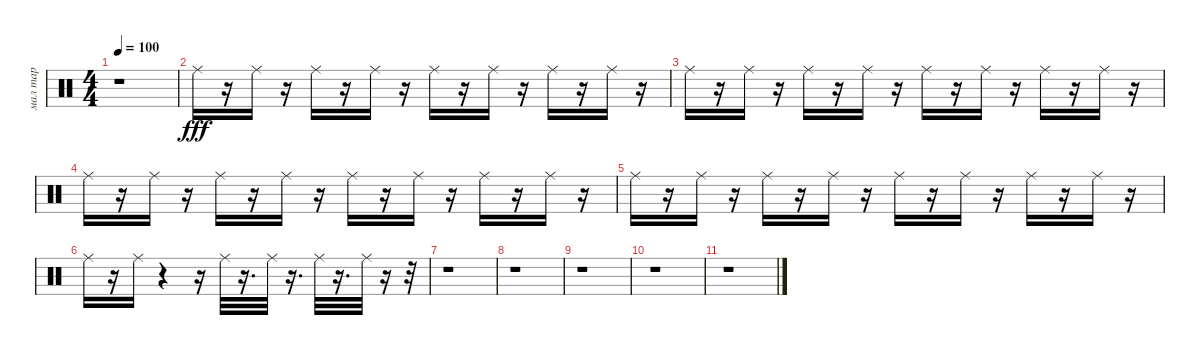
\track ("мал тар" "мал тар") {instrument percussion}
\staff {score}
\articulation defaults
\ts (4 4)
\tempo 100
\clef neutral
\ks c
r.1{dy fff} |
"Ride (middle)".16 r.16 "Ride (middle)".16 r.16 "Ride (middle)".16 r.16 "Ride (middle)".16 r.16 "Ride (middle)".16 r.16 "Ride (middle)".16 r.16 "Ride (middle)".16 r.16 "Ride (middle)".16 r.16 |
"Ride (middle)".16 r.16 "Ride (middle)".16 r.16 "Ride (middle)".16 r.16 "Ride (middle)".16 r.16 "Ride (middle)".16 r.16 "Ride (middle)".16 r.16 "Ride (middle)".16 r.16 "Ride (middle)".16 r.16 |
"Ride (middle)".16 r.16 "Ride (middle)".16 r.16 "Ride (middle)".16 r.16 "Ride (middle)".16 r.16 "Ride (middle)".16 r.16 "Ride (middle)".16 r.16 "Ride (middle)".16 r.16 "Ride (middle)".16 r.16 |
"Ride (middle)".16 r.16 "Ride (middle)".16 r.16 "Ride (middle)".16 r.16 "Ride (middle)".16 r.16 "Ride (middle)".16 r.16 "Ride (middle)".16 r.16 "Ride (middle)".16 r.16 "Ride (middle)".16 r.16 |
"Ride (middle)".16 r.16 "Ride (middle)".16 r.4 r.16 "Ride (middle)".32 r.16{d} "Ride (middle)".32 r.16{d} "Ride (middle)".32 r.16{d} "Ride (middle)".32 r.16 r.32 |
r.1 |
r.1 |
r.1 |
r.1 |
r.1
